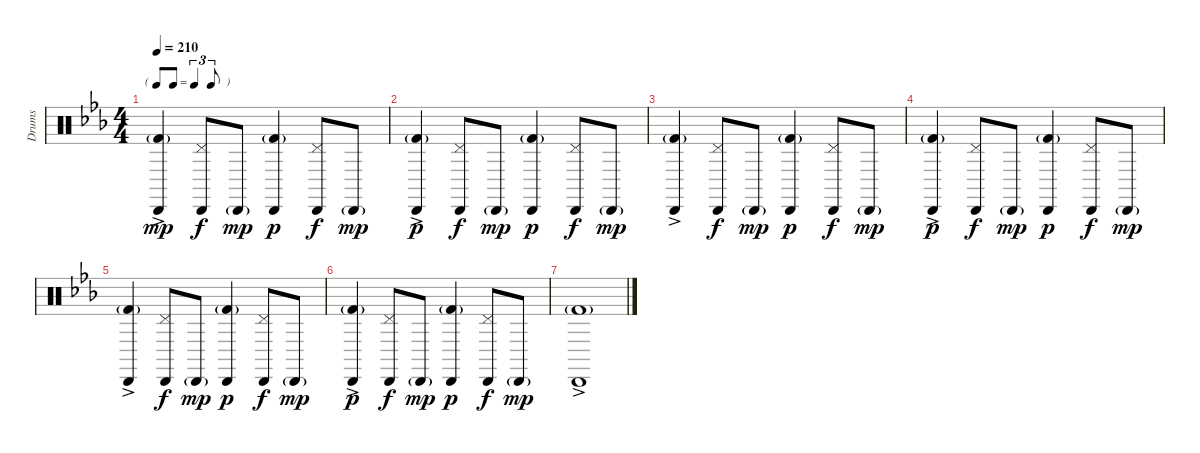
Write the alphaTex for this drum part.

\track ("Drums" "Drums") {instrument percussion}
\staff {score}
\articulation defaults
\ts (4 4)
\tf triplet8th
\tempo 210
\clef neutral
\ks eb
("Cabasa (hit)"{ac} "Kick (hit) 2"{g}).4{dy mp} ("Cabasa (hit)" "Pedal Hi-Hat (hit)").8{dy f} "Cabasa (hit)"{g}.8{dy mp} ("Cabasa (hit)" "Kick (hit) 2"{g}).4{dy p} ("Cabasa (hit)" "Pedal Hi-Hat (hit)").8{dy f} "Cabasa (hit)"{g}.8{dy mp} |
("Cabasa (hit)"{ac} "Kick (hit) 2"{g}).4{dy p} ("Cabasa (hit)" "Pedal Hi-Hat (hit)").8{dy f} "Cabasa (hit)"{g}.8{dy mp} ("Cabasa (hit)" "Kick (hit) 2"{g}).4{dy p} ("Cabasa (hit)" "Pedal Hi-Hat (hit)").8{dy f} "Cabasa (hit)"{g}.8{dy mp} |
("Cabasa (hit)"{ac} "Kick (hit) 2"{g}).4 ("Cabasa (hit)" "Pedal Hi-Hat (hit)").8{dy f} "Cabasa (hit)"{g}.8{dy mp} ("Cabasa (hit)" "Kick (hit) 2"{g}).4{dy p} ("Cabasa (hit)" "Pedal Hi-Hat (hit)").8{dy f} "Cabasa (hit)"{g}.8{dy mp} |
("Cabasa (hit)"{ac} "Kick (hit) 2"{g}).4{dy p} ("Cabasa (hit)" "Pedal Hi-Hat (hit)").8{dy f} "Cabasa (hit)"{g}.8{dy mp} ("Cabasa (hit)" "Kick (hit) 2"{g}).4{dy p} ("Cabasa (hit)" "Pedal Hi-Hat (hit)").8{dy f} "Cabasa (hit)"{g}.8{dy mp} |
("Cabasa (hit)"{ac} "Kick (hit) 2"{g}).4 ("Cabasa (hit)" "Pedal Hi-Hat (hit)").8{dy f} "Cabasa (hit)"{g}.8{dy mp} ("Cabasa (hit)" "Kick (hit) 2"{g}).4{dy p} ("Cabasa (hit)" "Pedal Hi-Hat (hit)").8{dy f} "Cabasa (hit)"{g}.8{dy mp} |
("Cabasa (hit)"{ac} "Kick (hit) 2"{g}).4{dy p} ("Cabasa (hit)" "Pedal Hi-Hat (hit)").8{dy f} "Cabasa (hit)"{g}.8{dy mp} ("Cabasa (hit)" "Kick (hit) 2"{g}).4{dy p} ("Cabasa (hit)" "Pedal Hi-Hat (hit)").8{dy f} "Cabasa (hit)"{g}.8{dy mp} |
("Cabasa (hit)"{ac} "Kick (hit) 2"{g}).1
